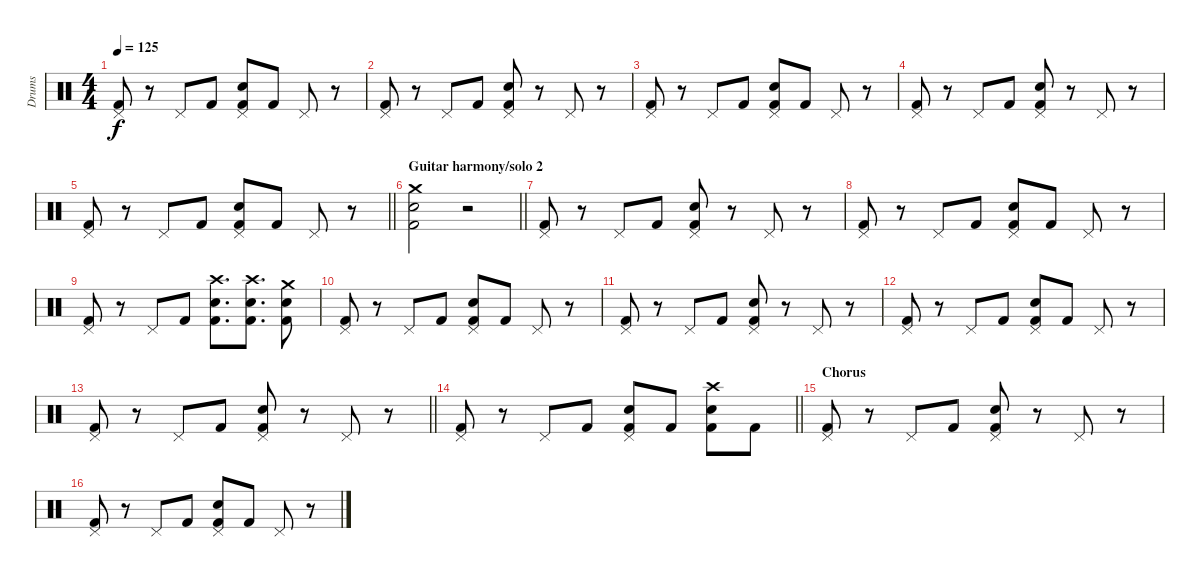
\track ("Drums" "Drums") {instrument percussion}
\staff {score}
\articulation defaults
\ts (4 4)
\tempo 125
\clef neutral
\ks c
("Pedal Hi-Hat (hit)" "Kick (hit) 2").8{dy f} r.8 "Pedal Hi-Hat (hit)".8 "Kick (hit) 2".8 ("Pedal Hi-Hat (hit)" "Electric Snare (hit)" "Kick (hit) 2").8 "Kick (hit) 2".8 "Pedal Hi-Hat (hit)".8 r.8 |
("Pedal Hi-Hat (hit)" "Kick (hit) 2").8 r.8 "Pedal Hi-Hat (hit)".8 "Kick (hit) 2".8 ("Pedal Hi-Hat (hit)" "Electric Snare (hit)" "Kick (hit) 2").8 r.8 "Pedal Hi-Hat (hit)".8 r.8 |
("Pedal Hi-Hat (hit)" "Kick (hit) 2").8 r.8 "Pedal Hi-Hat (hit)".8 "Kick (hit) 2".8 ("Pedal Hi-Hat (hit)" "Electric Snare (hit)" "Kick (hit) 2").8 "Kick (hit) 2".8 "Pedal Hi-Hat (hit)".8 r.8 |
("Pedal Hi-Hat (hit)" "Kick (hit) 2").8 r.8 "Pedal Hi-Hat (hit)".8 "Kick (hit) 2".8 ("Pedal Hi-Hat (hit)" "Electric Snare (hit)" "Kick (hit) 2").8 r.8 "Pedal Hi-Hat (hit)".8 r.8 |
\barLineRight lightlight
("Pedal Hi-Hat (hit)" "Kick (hit) 2").8 r.8 "Pedal Hi-Hat (hit)".8 "Kick (hit) 2".8 ("Pedal Hi-Hat (hit)" "Electric Snare (hit)" "Kick (hit) 2").8 "Kick (hit) 2".8 "Pedal Hi-Hat (hit)".8 r.8 |
\section ("" "Guitar harmony/solo 2")
\barLineRight lightlight
("Crash medium (hit)" "Electric Snare (hit)" "Kick (hit) 2").2 r.2 |
("Pedal Hi-Hat (hit)" "Kick (hit) 2").8 r.8 "Pedal Hi-Hat (hit)".8 "Kick (hit) 2".8 ("Pedal Hi-Hat (hit)" "Electric Snare (hit)" "Kick (hit) 2").8 r.8 "Pedal Hi-Hat (hit)".8 r.8 |
("Pedal Hi-Hat (hit)" "Kick (hit) 2").8 r.8 "Pedal Hi-Hat (hit)".8 "Kick (hit) 2".8 ("Pedal Hi-Hat (hit)" "Electric Snare (hit)" "Kick (hit) 2").8 "Kick (hit) 2".8 "Pedal Hi-Hat (hit)".8 r.8 |
("Pedal Hi-Hat (hit)" "Kick (hit) 2").8 r.8 "Pedal Hi-Hat (hit)".8 "Kick (hit) 2".8 ("Crash high (hit)" "Electric Snare (hit)" "Kick (hit) 2").8{d} ("Crash high (hit)" "Electric Snare (hit)" "Kick (hit) 2").8{d} ("Crash medium (hit)" "Electric Snare (hit)" "Kick (hit) 2").8 |
("Pedal Hi-Hat (hit)" "Kick (hit) 2").8 r.8 "Pedal Hi-Hat (hit)".8 "Kick (hit) 2".8 ("Pedal Hi-Hat (hit)" "Electric Snare (hit)" "Kick (hit) 2").8 "Kick (hit) 2".8 "Pedal Hi-Hat (hit)".8 r.8 |
("Pedal Hi-Hat (hit)" "Kick (hit) 2").8 r.8 "Pedal Hi-Hat (hit)".8 "Kick (hit) 2".8 ("Pedal Hi-Hat (hit)" "Electric Snare (hit)" "Kick (hit) 2").8 r.8 "Pedal Hi-Hat (hit)".8 r.8 |
("Pedal Hi-Hat (hit)" "Kick (hit) 2").8 r.8 "Pedal Hi-Hat (hit)".8 "Kick (hit) 2".8 ("Pedal Hi-Hat (hit)" "Electric Snare (hit)" "Kick (hit) 2").8 "Kick (hit) 2".8 "Pedal Hi-Hat (hit)".8 r.8 |
\barLineRight lightlight
("Pedal Hi-Hat (hit)" "Kick (hit) 2").8 r.8 "Pedal Hi-Hat (hit)".8 "Kick (hit) 2".8 ("Pedal Hi-Hat (hit)" "Electric Snare (hit)" "Kick (hit) 2").8 r.8 "Pedal Hi-Hat (hit)".8 r.8 |
\section ("" "")
\barLineRight lightlight
("Pedal Hi-Hat (hit)" "Kick (hit) 2").8 r.8 "Pedal Hi-Hat (hit)".8 "Kick (hit) 2".8 ("Pedal Hi-Hat (hit)" "Electric Snare (hit)" "Kick (hit) 2").8 "Kick (hit) 2".8 ("Crash high (hit)" "Electric Snare (hit)" "Kick (hit) 2").8 "Kick (hit) 2".8 |
\section ("" "Chorus")
("Pedal Hi-Hat (hit)" "Kick (hit) 2").8 r.8 "Pedal Hi-Hat (hit)".8 "Kick (hit) 2".8 ("Pedal Hi-Hat (hit)" "Electric Snare (hit)" "Kick (hit) 2").8 r.8 "Pedal Hi-Hat (hit)".8 r.8 |
("Pedal Hi-Hat (hit)" "Kick (hit) 2").8 r.8 "Pedal Hi-Hat (hit)".8 "Kick (hit) 2".8 ("Pedal Hi-Hat (hit)" "Electric Snare (hit)" "Kick (hit) 2").8 "Kick (hit) 2".8 "Pedal Hi-Hat (hit)".8 r.8
